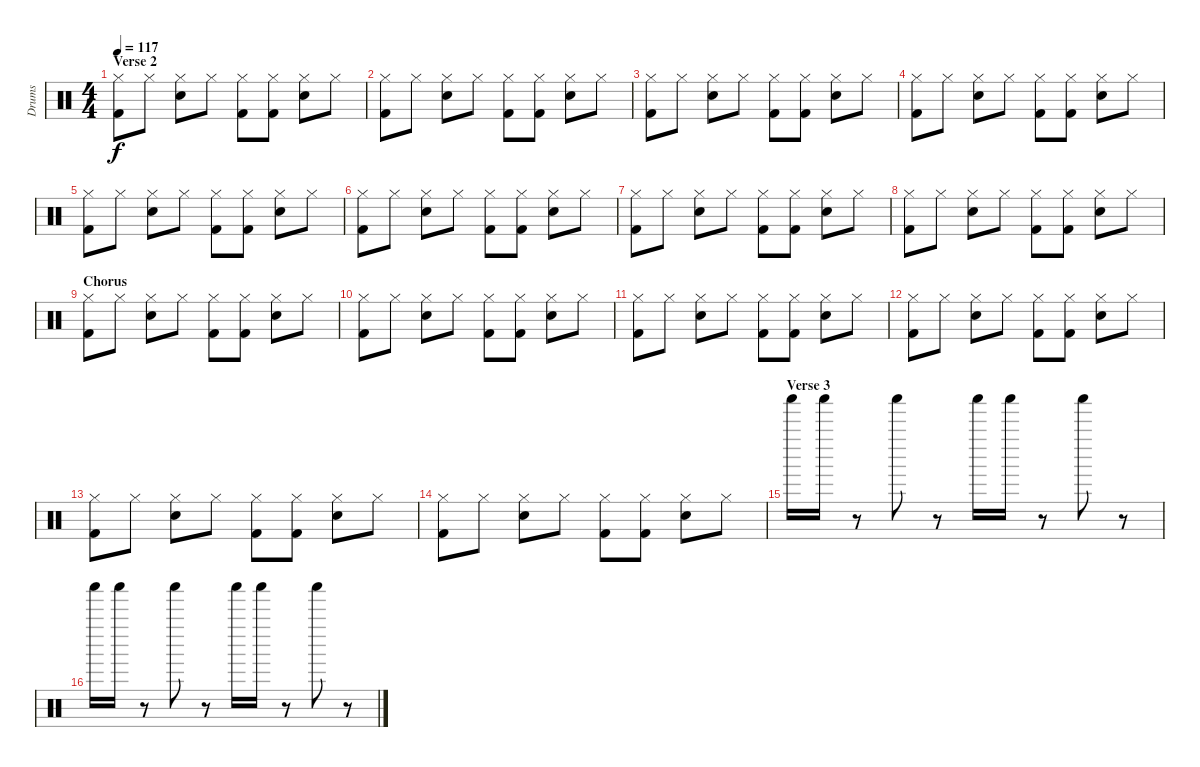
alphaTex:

\track ("Drums" "Drums") {instrument percussion}
\staff {score}
\articulation defaults
\ts (4 4)
\section ("" "Verse 2")
\tempo 117
\clef neutral
\ks c
("Hi-Hat (closed)" "Kick (hit) 2").8{dy f} "Hi-Hat (closed)".8 ("Hi-Hat (closed)" "Snare (hit) 2").8 "Hi-Hat (closed)".8 ("Hi-Hat (closed)" "Kick (hit) 2").8 ("Hi-Hat (closed)" "Kick (hit) 2").8 ("Hi-Hat (closed)" "Snare (hit) 2").8 "Hi-Hat (closed)".8 |
("Hi-Hat (closed)" "Kick (hit) 2").8 "Hi-Hat (closed)".8 ("Hi-Hat (closed)" "Snare (hit) 2").8 "Hi-Hat (closed)".8 ("Hi-Hat (closed)" "Kick (hit) 2").8 ("Hi-Hat (closed)" "Kick (hit) 2").8 ("Hi-Hat (closed)" "Snare (hit) 2").8 "Hi-Hat (closed)".8 |
("Hi-Hat (closed)" "Kick (hit) 2").8 "Hi-Hat (closed)".8 ("Hi-Hat (closed)" "Snare (hit) 2").8 "Hi-Hat (closed)".8 ("Hi-Hat (closed)" "Kick (hit) 2").8 ("Hi-Hat (closed)" "Kick (hit) 2").8 ("Hi-Hat (closed)" "Snare (hit) 2").8 "Hi-Hat (closed)".8 |
("Hi-Hat (closed)" "Kick (hit) 2").8 "Hi-Hat (closed)".8 ("Hi-Hat (closed)" "Snare (hit) 2").8 "Hi-Hat (closed)".8 ("Hi-Hat (closed)" "Kick (hit) 2").8 ("Hi-Hat (closed)" "Kick (hit) 2").8 ("Hi-Hat (closed)" "Snare (hit) 2").8 "Hi-Hat (closed)".8 |
("Hi-Hat (closed)" "Kick (hit) 2").8 "Hi-Hat (closed)".8 ("Hi-Hat (closed)" "Snare (hit) 2").8 "Hi-Hat (closed)".8 ("Hi-Hat (closed)" "Kick (hit) 2").8 ("Hi-Hat (closed)" "Kick (hit) 2").8 ("Hi-Hat (closed)" "Snare (hit) 2").8 "Hi-Hat (closed)".8 |
("Hi-Hat (closed)" "Kick (hit) 2").8 "Hi-Hat (closed)".8 ("Hi-Hat (closed)" "Snare (hit) 2").8 "Hi-Hat (closed)".8 ("Hi-Hat (closed)" "Kick (hit) 2").8 ("Hi-Hat (closed)" "Kick (hit) 2").8 ("Hi-Hat (closed)" "Snare (hit) 2").8 "Hi-Hat (closed)".8 |
("Hi-Hat (closed)" "Kick (hit) 2").8 "Hi-Hat (closed)".8 ("Hi-Hat (closed)" "Snare (hit) 2").8 "Hi-Hat (closed)".8 ("Hi-Hat (closed)" "Kick (hit) 2").8 ("Hi-Hat (closed)" "Kick (hit) 2").8 ("Hi-Hat (closed)" "Snare (hit) 2").8 "Hi-Hat (closed)".8 |
("Hi-Hat (closed)" "Kick (hit) 2").8 "Hi-Hat (closed)".8 ("Hi-Hat (closed)" "Snare (hit) 2").8 "Hi-Hat (closed)".8 ("Hi-Hat (closed)" "Kick (hit) 2").8 ("Hi-Hat (closed)" "Kick (hit) 2").8 ("Hi-Hat (closed)" "Snare (hit) 2").8 "Hi-Hat (closed)".8 |
\section ("" "Chorus")
("Hi-Hat (closed)" "Kick (hit) 2").8 "Hi-Hat (closed)".8 ("Hi-Hat (closed)" "Snare (hit) 2").8 "Hi-Hat (closed)".8 ("Hi-Hat (closed)" "Kick (hit) 2").8 ("Hi-Hat (closed)" "Kick (hit) 2").8 ("Hi-Hat (closed)" "Snare (hit) 2").8 "Hi-Hat (closed)".8 |
("Hi-Hat (closed)" "Kick (hit) 2").8 "Hi-Hat (closed)".8 ("Hi-Hat (closed)" "Snare (hit) 2").8 "Hi-Hat (closed)".8 ("Hi-Hat (closed)" "Kick (hit) 2").8 ("Hi-Hat (closed)" "Kick (hit) 2").8 ("Hi-Hat (closed)" "Snare (hit) 2").8 "Hi-Hat (closed)".8 |
("Hi-Hat (closed)" "Kick (hit) 2").8 "Hi-Hat (closed)".8 ("Hi-Hat (closed)" "Snare (hit) 2").8 "Hi-Hat (closed)".8 ("Hi-Hat (closed)" "Kick (hit) 2").8 ("Hi-Hat (closed)" "Kick (hit) 2").8 ("Hi-Hat (closed)" "Snare (hit) 2").8 "Hi-Hat (closed)".8 |
("Hi-Hat (closed)" "Kick (hit) 2").8 "Hi-Hat (closed)".8 ("Hi-Hat (closed)" "Snare (hit) 2").8 "Hi-Hat (closed)".8 ("Hi-Hat (closed)" "Kick (hit) 2").8 ("Hi-Hat (closed)" "Kick (hit) 2").8 ("Hi-Hat (closed)" "Snare (hit) 2").8 "Hi-Hat (closed)".8 |
("Hi-Hat (closed)" "Kick (hit) 2").8 "Hi-Hat (closed)".8 ("Hi-Hat (closed)" "Snare (hit) 2").8 "Hi-Hat (closed)".8 ("Hi-Hat (closed)" "Kick (hit) 2").8 ("Hi-Hat (closed)" "Kick (hit) 2").8 ("Hi-Hat (closed)" "Snare (hit) 2").8 "Hi-Hat (closed)".8 |
("Hi-Hat (closed)" "Kick (hit) 2").8 "Hi-Hat (closed)".8 ("Hi-Hat (closed)" "Snare (hit) 2").8 "Hi-Hat (closed)".8 ("Hi-Hat (closed)" "Kick (hit) 2").8 ("Hi-Hat (closed)" "Kick (hit) 2").8 ("Hi-Hat (closed)" "Snare (hit) 2").8 "Hi-Hat (closed)".8 |
\section ("" "Verse 3")
"Shaker (hit)".16 "Shaker (hit)".16 r.8 "Shaker (hit)".8 r.8 "Shaker (hit)".16 "Shaker (hit)".16 r.8 "Shaker (hit)".8 r.8 |
"Shaker (hit)".16 "Shaker (hit)".16 r.8 "Shaker (hit)".8 r.8 "Shaker (hit)".16 "Shaker (hit)".16 r.8 "Shaker (hit)".8 r.8
